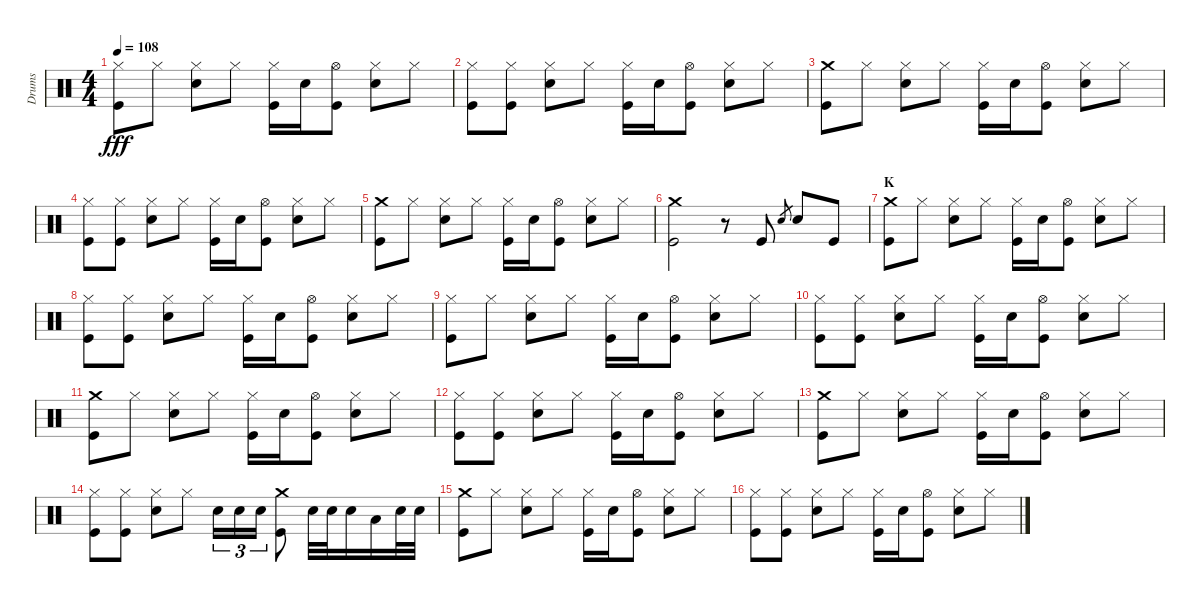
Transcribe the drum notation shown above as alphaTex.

\track ("Drums" "Drums") {instrument percussion}
\staff {score}
\articulation defaults
\ts (4 4)
\tempo 108
\clef neutral
\ks c
("Hi-Hat (closed)" "Kick (hit)").8{dy fff} "Hi-Hat (closed)".8 ("Hi-Hat (closed)" "Snare (hit) 2").8 "Hi-Hat (closed)".8 ("Hi-Hat (closed)" "Kick (hit)").16 "Snare (hit) 2".16 ("Hi-Hat (open)" "Kick (hit)").8 ("Hi-Hat (closed)" "Snare (hit) 2").8 "Hi-Hat (closed)".8 |
("Hi-Hat (closed)" "Kick (hit)").8 ("Hi-Hat (closed)" "Kick (hit)").8 ("Hi-Hat (closed)" "Snare (hit) 2").8 "Hi-Hat (closed)".8 ("Hi-Hat (closed)" "Kick (hit)").16 "Snare (hit) 2".16 ("Hi-Hat (open)" "Kick (hit)").8 ("Hi-Hat (closed)" "Snare (hit) 2").8 "Hi-Hat (closed)".8 |
("Crash medium (hit)" "Kick (hit)").8 "Hi-Hat (closed)".8 ("Hi-Hat (closed)" "Snare (hit) 2").8 "Hi-Hat (closed)".8 ("Hi-Hat (closed)" "Kick (hit)").16 "Snare (hit) 2".16 ("Hi-Hat (open)" "Kick (hit)").8 ("Hi-Hat (closed)" "Snare (hit) 2").8 "Hi-Hat (closed)".8 |
("Hi-Hat (closed)" "Kick (hit)").8 ("Hi-Hat (closed)" "Kick (hit)").8 ("Hi-Hat (closed)" "Snare (hit) 2").8 "Hi-Hat (closed)".8 ("Hi-Hat (closed)" "Kick (hit)").16 "Snare (hit) 2".16 ("Hi-Hat (open)" "Kick (hit)").8 ("Hi-Hat (closed)" "Snare (hit) 2").8 "Hi-Hat (closed)".8 |
("Crash medium (hit)" "Kick (hit)").8 "Hi-Hat (closed)".8 ("Hi-Hat (closed)" "Snare (hit) 2").8 "Hi-Hat (closed)".8 ("Hi-Hat (closed)" "Kick (hit)").16 "Snare (hit) 2".16 ("Hi-Hat (open)" "Kick (hit)").8 ("Hi-Hat (closed)" "Snare (hit) 2").8 "Hi-Hat (closed)".8 |
("Crash medium (hit)" "Kick (hit)").2 r.8 "Kick (hit)".8 "Snare (hit) 2".8{gr} "Snare (hit) 2".8 "Kick (hit)".8 |
\section ("" "K")
("Crash medium (hit)" "Kick (hit)").8 "Hi-Hat (closed)".8 ("Hi-Hat (closed)" "Snare (hit) 2").8 "Hi-Hat (closed)".8 ("Hi-Hat (closed)" "Kick (hit)").16 "Snare (hit) 2".16 ("Hi-Hat (open)" "Kick (hit)").8 ("Hi-Hat (closed)" "Snare (hit) 2").8 "Hi-Hat (closed)".8 |
("Hi-Hat (closed)" "Kick (hit)").8 ("Hi-Hat (closed)" "Kick (hit)").8 ("Hi-Hat (closed)" "Snare (hit) 2").8 "Hi-Hat (closed)".8 ("Hi-Hat (closed)" "Kick (hit)").16 "Snare (hit) 2".16 ("Hi-Hat (open)" "Kick (hit)").8 ("Hi-Hat (closed)" "Snare (hit) 2").8 "Hi-Hat (closed)".8 |
("Hi-Hat (closed)" "Kick (hit)").8 "Hi-Hat (closed)".8 ("Hi-Hat (closed)" "Snare (hit) 2").8 "Hi-Hat (closed)".8 ("Hi-Hat (closed)" "Kick (hit)").16 "Snare (hit) 2".16 ("Hi-Hat (open)" "Kick (hit)").8 ("Hi-Hat (closed)" "Snare (hit) 2").8 "Hi-Hat (closed)".8 |
("Hi-Hat (closed)" "Kick (hit)").8 ("Hi-Hat (closed)" "Kick (hit)").8 ("Hi-Hat (closed)" "Snare (hit) 2").8 "Hi-Hat (closed)".8 ("Hi-Hat (closed)" "Kick (hit)").16 "Snare (hit) 2".16 ("Hi-Hat (open)" "Kick (hit)").8 ("Hi-Hat (closed)" "Snare (hit) 2").8 "Hi-Hat (closed)".8 |
("Crash medium (hit)" "Kick (hit)").8 "Hi-Hat (closed)".8 ("Hi-Hat (closed)" "Snare (hit) 2").8 "Hi-Hat (closed)".8 ("Hi-Hat (closed)" "Kick (hit)").16 "Snare (hit) 2".16 ("Hi-Hat (open)" "Kick (hit)").8 ("Hi-Hat (closed)" "Snare (hit) 2").8 "Hi-Hat (closed)".8 |
("Hi-Hat (closed)" "Kick (hit)").8 ("Hi-Hat (closed)" "Kick (hit)").8 ("Hi-Hat (closed)" "Snare (hit) 2").8 "Hi-Hat (closed)".8 ("Hi-Hat (closed)" "Kick (hit)").16 "Snare (hit) 2".16 ("Hi-Hat (open)" "Kick (hit)").8 ("Hi-Hat (closed)" "Snare (hit) 2").8 "Hi-Hat (closed)".8 |
("Crash medium (hit)" "Kick (hit)").8 "Hi-Hat (closed)".8 ("Hi-Hat (closed)" "Snare (hit) 2").8 "Hi-Hat (closed)".8 ("Hi-Hat (closed)" "Kick (hit)").16 "Snare (hit) 2".16 ("Hi-Hat (open)" "Kick (hit)").8 ("Hi-Hat (closed)" "Snare (hit) 2").8 "Hi-Hat (closed)".8 |
("Hi-Hat (closed)" "Kick (hit)").8 ("Hi-Hat (closed)" "Kick (hit)").8 ("Hi-Hat (closed)" "Snare (hit) 2").8 "Hi-Hat (closed)".8 "Snare (hit) 2".16{tu (3 2)} "Snare (hit) 2".16{tu (3 2)} "Snare (hit) 2".16{tu (3 2)} ("Crash medium (hit)" "Kick (hit)").8 "Snare (hit) 2".32 "Snare (hit) 2".32 "Snare (hit) 2".16 "Low Tom (hit)".16 "Snare (hit) 2".32 "Snare (hit) 2".32 |
("Crash medium (hit)" "Kick (hit)").8 "Hi-Hat (closed)".8 ("Hi-Hat (closed)" "Snare (hit) 2").8 "Hi-Hat (closed)".8 ("Hi-Hat (closed)" "Kick (hit)").16 "Snare (hit) 2".16 ("Hi-Hat (open)" "Kick (hit)").8 ("Hi-Hat (closed)" "Snare (hit) 2").8 "Hi-Hat (closed)".8 |
("Hi-Hat (closed)" "Kick (hit)").8 ("Hi-Hat (closed)" "Kick (hit)").8 ("Hi-Hat (closed)" "Snare (hit) 2").8 "Hi-Hat (closed)".8 ("Hi-Hat (closed)" "Kick (hit)").16 "Snare (hit) 2".16 ("Hi-Hat (open)" "Kick (hit)").8 ("Hi-Hat (closed)" "Snare (hit) 2").8 "Hi-Hat (closed)".8
